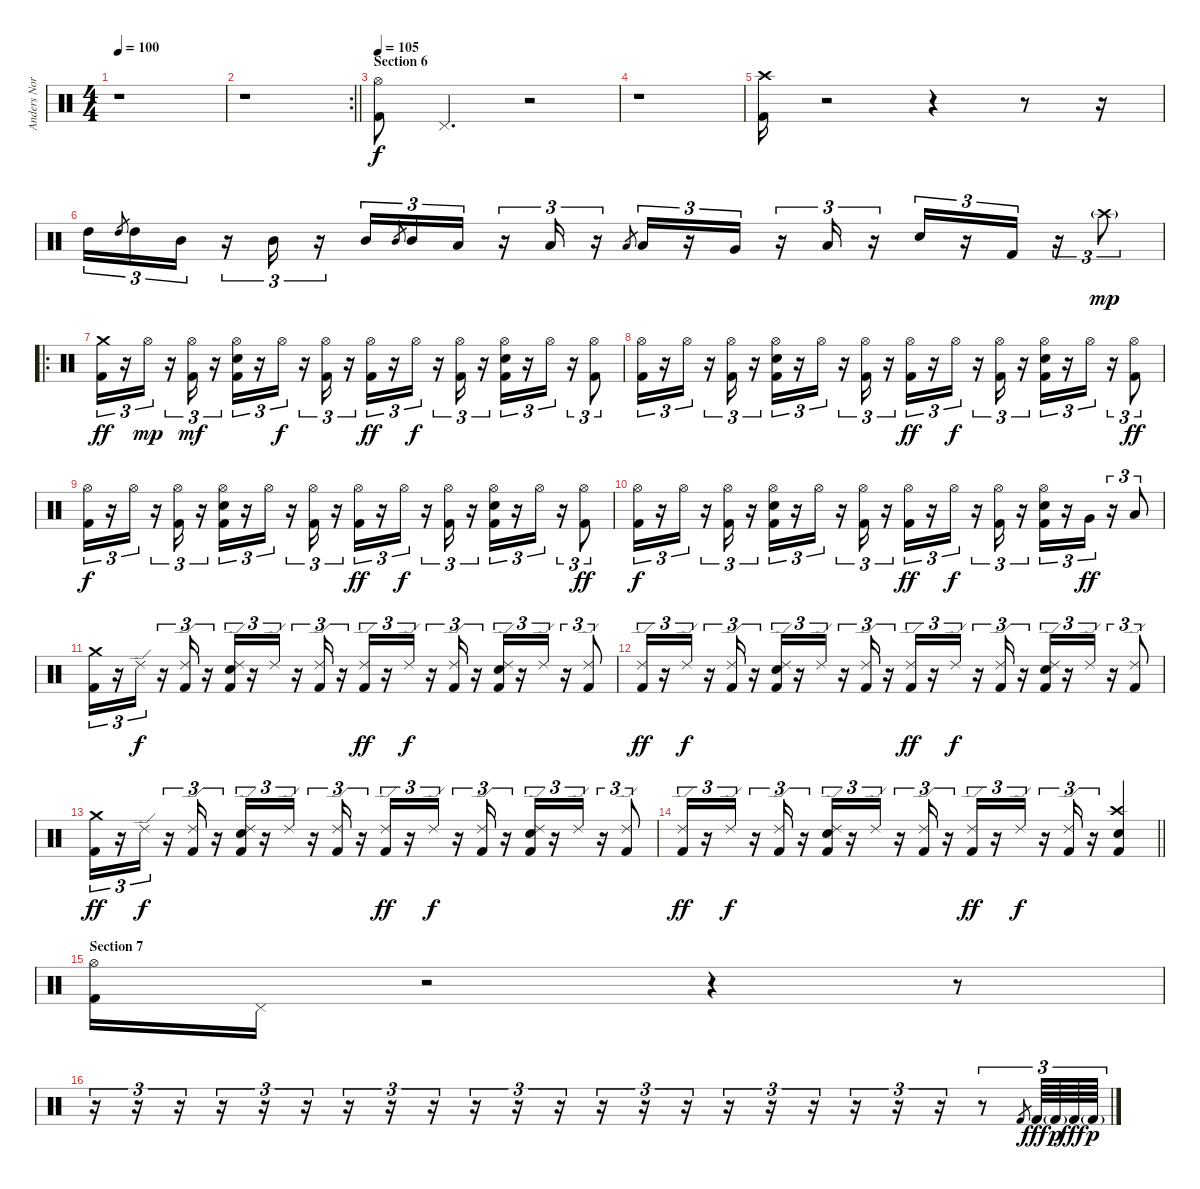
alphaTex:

\track ("Anders Nordin" "Anders Nor") {instrument percussion}
\staff {score}
\articulation defaults
\ts (4 4)
\tempo 100
\clef neutral
\ks c
r.1{dy f} |
\rc 2
\barLineRight lightlight
r.1 |
\section ("" "Section 6")
\tempo 105
("Hi-Hat (open)" "Kick (hit) 2").8 "Pedal Hi-Hat (hit)".4{d} r.2 |
r.1 |
("Crash high (hit)" "Kick (hit) 2").16 r.2 r.4 r.8 r.16 |
"High Tom (hit)".16{tu (3 2)} "High Tom (hit)".8{gr} "High Tom (hit)".16{tu (3 2)} "Mid Tom (hit)".16{tu (3 2)} r.16{tu (3 2)} "Mid Tom (hit)".16{tu (3 2)} r.16{tu (3 2)} "Mid Tom (hit)".16{tu (3 2)} "Mid Tom (hit)".8{gr} "Mid Tom (hit)".16{tu (3 2)} "Low Tom (hit)".16{tu (3 2)} r.16{tu (3 2)} "Low Tom (hit)".16{tu (3 2)} r.16{tu (3 2)} "Low Tom (hit)".8{gr} "Low Tom (hit)".16{tu (3 2)} r.16{tu (3 2)} "Very Low Tom (hit)".16{tu (3 2)} r.16{tu (3 2)} "Low Floor Tom (hit)".16{tu (3 2)} r.16{tu (3 2)} "Snare (hit) 2".16{tu (3 2)} r.16{tu (3 2)} "Kick (hit) 2".16{tu (3 2)} r.16{tu (3 2)} "Crash high (hit)"{g}.8{tu (3 2) dy mp} |
\ro
("Crash medium (hit)" "Kick (hit) 2").16{tu (3 2) dy ff} r.16{tu (3 2)} "Hi-Hat (open)".16{tu (3 2) dy mp} r.16{tu (3 2)} ("Hi-Hat (open)" "Kick (hit) 2").16{tu (3 2) dy mf} r.16{tu (3 2)} ("Hi-Hat (open)" "Snare (hit) 2" "Kick (hit) 2").16{tu (3 2)} r.16{tu (3 2)} "Hi-Hat (open)".16{tu (3 2) dy f} r.16{tu (3 2)} ("Hi-Hat (open)" "Kick (hit) 2").16{tu (3 2)} r.16{tu (3 2)} ("Hi-Hat (open)" "Kick (hit) 2").16{tu (3 2) dy ff} r.16{tu (3 2)} "Hi-Hat (open)".16{tu (3 2) dy f} r.16{tu (3 2)} ("Hi-Hat (open)" "Kick (hit) 2").16{tu (3 2)} r.16{tu (3 2)} ("Hi-Hat (open)" "Snare (hit) 2" "Kick (hit) 2").16{tu (3 2)} r.16{tu (3 2)} "Hi-Hat (open)".16{tu (3 2)} r.16{tu (3 2)} ("Hi-Hat (open)" "Kick (hit) 2").8{tu (3 2)} |
("Hi-Hat (open)" "Kick (hit) 2").16{tu (3 2)} r.16{tu (3 2)} "Hi-Hat (open)".16{tu (3 2)} r.16{tu (3 2)} ("Hi-Hat (open)" "Kick (hit) 2").16{tu (3 2)} r.16{tu (3 2)} ("Hi-Hat (open)" "Snare (hit) 2" "Kick (hit) 2").16{tu (3 2)} r.16{tu (3 2)} "Hi-Hat (open)".16{tu (3 2)} r.16{tu (3 2)} ("Hi-Hat (open)" "Kick (hit) 2").16{tu (3 2)} r.16{tu (3 2)} ("Hi-Hat (open)" "Kick (hit) 2").16{tu (3 2) dy ff} r.16{tu (3 2)} "Hi-Hat (open)".16{tu (3 2) dy f} r.16{tu (3 2)} ("Hi-Hat (open)" "Kick (hit) 2").16{tu (3 2)} r.16{tu (3 2)} ("Hi-Hat (open)" "Snare (hit) 2" "Kick (hit) 2").16{tu (3 2)} r.16{tu (3 2)} "Hi-Hat (open)".16{tu (3 2)} r.16{tu (3 2)} ("Hi-Hat (open)" "Kick (hit) 2").8{tu (3 2) dy ff} |
("Hi-Hat (open)" "Kick (hit) 2").16{tu (3 2) dy f} r.16{tu (3 2)} "Hi-Hat (open)".16{tu (3 2)} r.16{tu (3 2)} ("Hi-Hat (open)" "Kick (hit) 2").16{tu (3 2)} r.16{tu (3 2)} ("Hi-Hat (open)" "Snare (hit) 2" "Kick (hit) 2").16{tu (3 2)} r.16{tu (3 2)} "Hi-Hat (open)".16{tu (3 2)} r.16{tu (3 2)} ("Hi-Hat (open)" "Kick (hit) 2").16{tu (3 2)} r.16{tu (3 2)} ("Hi-Hat (open)" "Kick (hit) 2").16{tu (3 2) dy ff} r.16{tu (3 2)} "Hi-Hat (open)".16{tu (3 2) dy f} r.16{tu (3 2)} ("Hi-Hat (open)" "Kick (hit) 2").16{tu (3 2)} r.16{tu (3 2)} ("Hi-Hat (open)" "Snare (hit) 2" "Kick (hit) 2").16{tu (3 2)} r.16{tu (3 2)} "Hi-Hat (open)".16{tu (3 2)} r.16{tu (3 2)} ("Hi-Hat (open)" "Kick (hit) 2").8{tu (3 2) dy ff} |
("Hi-Hat (open)" "Kick (hit) 2").16{tu (3 2) dy f} r.16{tu (3 2)} "Hi-Hat (open)".16{tu (3 2)} r.16{tu (3 2)} ("Hi-Hat (open)" "Kick (hit) 2").16{tu (3 2)} r.16{tu (3 2)} ("Hi-Hat (open)" "Snare (hit) 2" "Kick (hit) 2").16{tu (3 2)} r.16{tu (3 2)} "Hi-Hat (open)".16{tu (3 2)} r.16{tu (3 2)} ("Hi-Hat (open)" "Kick (hit) 2").16{tu (3 2)} r.16{tu (3 2)} ("Hi-Hat (open)" "Kick (hit) 2").16{tu (3 2) dy ff} r.16{tu (3 2)} "Hi-Hat (open)".16{tu (3 2) dy f} r.16{tu (3 2)} ("Hi-Hat (open)" "Kick (hit) 2").16{tu (3 2)} r.16{tu (3 2)} ("Hi-Hat (open)" "Snare (hit) 2" "Kick (hit) 2").16{tu (3 2)} r.16{tu (3 2)} "Very Low Tom (hit)".16{tu (3 2) dy ff} r.16{tu (3 2)} "Low Floor Tom (hit)".8{tu (3 2)} |
("Crash medium (hit)" "Kick (hit) 2").16{tu (3 2)} r.16{tu (3 2)} "Ride (edge) 2".16{tu (3 2) dy f} r.16{tu (3 2)} ("Ride (edge) 2" "Kick (hit) 2").16{tu (3 2)} r.16{tu (3 2)} ("Ride (edge) 2" "Snare (hit) 2" "Kick (hit) 2").16{tu (3 2)} r.16{tu (3 2)} "Ride (edge) 2".16{tu (3 2)} r.16{tu (3 2)} ("Ride (edge) 2" "Kick (hit) 2").16{tu (3 2)} r.16{tu (3 2)} ("Ride (edge) 2" "Kick (hit) 2").16{tu (3 2) dy ff} r.16{tu (3 2)} "Ride (edge) 2".16{tu (3 2) dy f} r.16{tu (3 2)} ("Ride (edge) 2" "Kick (hit) 2").16{tu (3 2)} r.16{tu (3 2)} ("Ride (edge) 2" "Snare (hit) 2" "Kick (hit) 2").16{tu (3 2)} r.16{tu (3 2)} "Ride (edge) 2".16{tu (3 2)} r.16{tu (3 2)} ("Ride (edge) 2" "Kick (hit) 2").8{tu (3 2)} |
("Ride (edge) 2" "Kick (hit) 2").16{tu (3 2) dy ff} r.16{tu (3 2)} "Ride (edge) 2".16{tu (3 2) dy f} r.16{tu (3 2)} ("Ride (edge) 2" "Kick (hit) 2").16{tu (3 2)} r.16{tu (3 2)} ("Ride (edge) 2" "Snare (hit) 2" "Kick (hit) 2").16{tu (3 2)} r.16{tu (3 2)} "Ride (edge) 2".16{tu (3 2)} r.16{tu (3 2)} ("Ride (edge) 2" "Kick (hit) 2").16{tu (3 2)} r.16{tu (3 2)} ("Ride (edge) 2" "Kick (hit) 2").16{tu (3 2) dy ff} r.16{tu (3 2)} "Ride (edge) 2".16{tu (3 2) dy f} r.16{tu (3 2)} ("Ride (edge) 2" "Kick (hit) 2").16{tu (3 2)} r.16{tu (3 2)} ("Ride (edge) 2" "Snare (hit) 2" "Kick (hit) 2").16{tu (3 2)} r.16{tu (3 2)} "Ride (edge) 2".16{tu (3 2)} r.16{tu (3 2)} ("Ride (edge) 2" "Kick (hit) 2").8{tu (3 2)} |
("Crash medium (hit)" "Kick (hit) 2").16{tu (3 2) dy ff} r.16{tu (3 2)} "Ride (edge) 2".16{tu (3 2) dy f} r.16{tu (3 2)} ("Ride (edge) 2" "Kick (hit) 2").16{tu (3 2)} r.16{tu (3 2)} ("Ride (edge) 2" "Snare (hit) 2" "Kick (hit) 2").16{tu (3 2)} r.16{tu (3 2)} "Ride (edge) 2".16{tu (3 2)} r.16{tu (3 2)} ("Ride (edge) 2" "Kick (hit) 2").16{tu (3 2)} r.16{tu (3 2)} ("Ride (edge) 2" "Kick (hit) 2").16{tu (3 2) dy ff} r.16{tu (3 2)} "Ride (edge) 2".16{tu (3 2) dy f} r.16{tu (3 2)} ("Ride (edge) 2" "Kick (hit) 2").16{tu (3 2)} r.16{tu (3 2)} ("Ride (edge) 2" "Snare (hit) 2" "Kick (hit) 2").16{tu (3 2)} r.16{tu (3 2)} "Ride (edge) 2".16{tu (3 2)} r.16{tu (3 2)} ("Ride (edge) 2" "Kick (hit) 2").8{tu (3 2)} |
\barLineRight lightlight
("Ride (edge) 2" "Kick (hit) 2").16{tu (3 2) dy ff} r.16{tu (3 2)} "Ride (edge) 2".16{tu (3 2) dy f} r.16{tu (3 2)} ("Ride (edge) 2" "Kick (hit) 2").16{tu (3 2)} r.16{tu (3 2)} ("Ride (edge) 2" "Snare (hit) 2" "Kick (hit) 2").16{tu (3 2)} r.16{tu (3 2)} "Ride (edge) 2".16{tu (3 2)} r.16{tu (3 2)} ("Ride (edge) 2" "Kick (hit) 2").16{tu (3 2)} r.16{tu (3 2)} ("Ride (edge) 2" "Kick (hit) 2").16{tu (3 2) dy ff} r.16{tu (3 2)} "Ride (edge) 2".16{tu (3 2) dy f} r.16{tu (3 2)} ("Ride (edge) 2" "Kick (hit) 2").16{tu (3 2)} r.16{tu (3 2)} ("Crash high (hit)" "Snare (hit) 2" "Kick (hit) 2").4 |
\section ("" "Section 7")
("Hi-Hat (open)" "Kick (hit) 2").16 "Pedal Hi-Hat (hit)".16 r.2 r.4 r.8 |
r.16{tu (3 2)} r.16{tu (3 2)} r.16{tu (3 2)} r.16{tu (3 2)} r.16{tu (3 2)} r.16{tu (3 2)} r.16{tu (3 2)} r.16{tu (3 2)} r.16{tu (3 2)} r.16{tu (3 2)} r.16{tu (3 2)} r.16{tu (3 2)} r.16{tu (3 2)} r.16{tu (3 2)} r.16{tu (3 2)} r.16{tu (3 2)} r.16{tu (3 2)} r.16{tu (3 2)} r.16{tu (3 2)} r.16{tu (3 2)} r.16{tu (3 2)} r.8{tu (3 2) volume 16} "Kick (hit) 2".8{gr} "Kick (hit) 2".64{tu (3 2) dy fff} "Kick (hit) 2"{g}.64{tu (3 2) dy p} "Kick (hit) 2".64{tu (3 2) dy fff} "Kick (hit) 2"{g}.64{tu (3 2) dy p}
